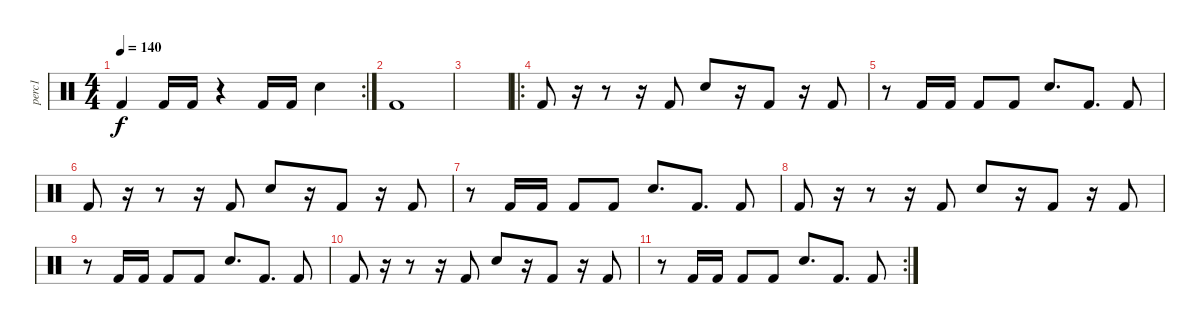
\track ("perc1" "perc1") {instrument percussion}
\staff {score}
\articulation defaults
\rc 2
\ts (4 4)
\tempo 140
\clef neutral
\ks c "Kick (hit) 2".4{dy f} "Kick (hit) 2".16 "Kick (hit) 2".16
r.4 "Kick (hit) 2".16 "Kick (hit) 2".16 "Electric Snare (hit)".4 |
"Kick (hit) 2".1 |
|
\ro "Kick (hit) 2".8
r.16 r.8 r.16 "Kick (hit) 2".8 "Electric Snare (hit)".8 r.16 "Kick (hit) 2".8 r.16 "Kick (hit) 2".8 |
r.8 "Kick (hit) 2".16 "Kick (hit) 2".16 "Kick (hit) 2".8 "Kick (hit) 2".8 "Electric Snare (hit)".8{d} "Kick (hit) 2".8{d} "Kick (hit) 2".8 |
"Kick (hit) 2".8 r.16 r.8 r.16 "Kick (hit) 2".8 "Electric Snare (hit)".8 r.16 "Kick (hit) 2".8 r.16 "Kick (hit) 2".8 |
r.8 "Kick (hit) 2".16 "Kick (hit) 2".16 "Kick (hit) 2".8 "Kick (hit) 2".8 "Electric Snare (hit)".8{d} "Kick (hit) 2".8{d} "Kick (hit) 2".8 |
"Kick (hit) 2".8 r.16 r.8 r.16 "Kick (hit) 2".8 "Electric Snare (hit)".8 r.16 "Kick (hit) 2".8 r.16 "Kick (hit) 2".8 |
r.8 "Kick (hit) 2".16 "Kick (hit) 2".16 "Kick (hit) 2".8 "Kick (hit) 2".8 "Electric Snare (hit)".8{d} "Kick (hit) 2".8{d} "Kick (hit) 2".8 |
"Kick (hit) 2".8 r.16 r.8 r.16 "Kick (hit) 2".8 "Electric Snare (hit)".8 r.16 "Kick (hit) 2".8 r.16 "Kick (hit) 2".8 |
\rc 2
r.8 "Kick (hit) 2".16 "Kick (hit) 2".16 "Kick (hit) 2".8 "Kick (hit) 2".8 "Electric Snare (hit)".8{d} "Kick (hit) 2".8{d} "Kick (hit) 2".8
